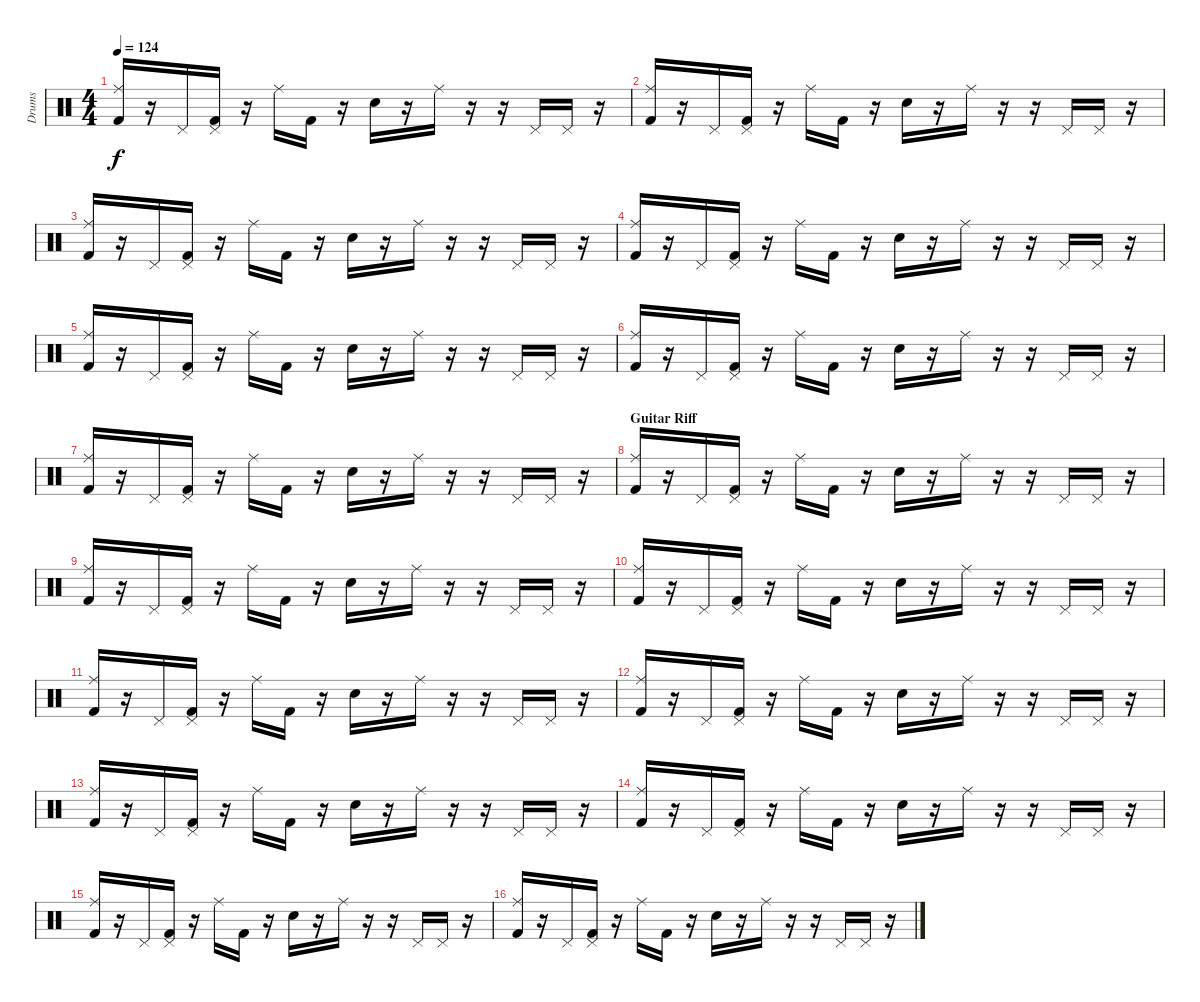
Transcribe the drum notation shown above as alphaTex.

\track ("Drums" "Drums") {instrument percussion}
\staff {score}
\articulation defaults
\ts (4 4)
\tempo 124
\clef neutral
\ks c
("Ride (middle)" "Kick (hit) 2").16{dy f} r.16 "Pedal Hi-Hat (hit)".16 ("Pedal Hi-Hat (hit)" "Kick (hit) 2").16 r.16 "Ride (middle)".16 "Kick (hit) 2".16 r.16 "Electric Snare (hit)".16 r.16 "Ride (middle)".16 r.16 r.16 "Pedal Hi-Hat (hit)".16 "Pedal Hi-Hat (hit)".16 r.16 |
("Ride (middle)" "Kick (hit) 2").16 r.16 "Pedal Hi-Hat (hit)".16 ("Pedal Hi-Hat (hit)" "Kick (hit) 2").16 r.16 "Ride (middle)".16 "Kick (hit) 2".16 r.16 "Electric Snare (hit)".16 r.16 "Ride (middle)".16 r.16 r.16 "Pedal Hi-Hat (hit)".16 "Pedal Hi-Hat (hit)".16 r.16 |
("Ride (middle)" "Kick (hit) 2").16 r.16 "Pedal Hi-Hat (hit)".16 ("Pedal Hi-Hat (hit)" "Kick (hit) 2").16 r.16 "Ride (middle)".16 "Kick (hit) 2".16 r.16 "Electric Snare (hit)".16 r.16 "Ride (middle)".16 r.16 r.16 "Pedal Hi-Hat (hit)".16 "Pedal Hi-Hat (hit)".16 r.16 |
("Ride (middle)" "Kick (hit) 2").16 r.16 "Pedal Hi-Hat (hit)".16 ("Pedal Hi-Hat (hit)" "Kick (hit) 2").16 r.16 "Ride (middle)".16 "Kick (hit) 2".16 r.16 "Electric Snare (hit)".16 r.16 "Ride (middle)".16 r.16 r.16 "Pedal Hi-Hat (hit)".16 "Pedal Hi-Hat (hit)".16 r.16 |
("Ride (middle)" "Kick (hit) 2").16 r.16 "Pedal Hi-Hat (hit)".16 ("Pedal Hi-Hat (hit)" "Kick (hit) 2").16 r.16 "Ride (middle)".16 "Kick (hit) 2".16 r.16 "Electric Snare (hit)".16 r.16 "Ride (middle)".16 r.16 r.16 "Pedal Hi-Hat (hit)".16 "Pedal Hi-Hat (hit)".16 r.16 |
("Ride (middle)" "Kick (hit) 2").16 r.16 "Pedal Hi-Hat (hit)".16 ("Pedal Hi-Hat (hit)" "Kick (hit) 2").16 r.16 "Ride (middle)".16 "Kick (hit) 2".16 r.16 "Electric Snare (hit)".16 r.16 "Ride (middle)".16 r.16 r.16 "Pedal Hi-Hat (hit)".16 "Pedal Hi-Hat (hit)".16 r.16 |
("Ride (middle)" "Kick (hit) 2").16 r.16 "Pedal Hi-Hat (hit)".16 ("Pedal Hi-Hat (hit)" "Kick (hit) 2").16 r.16 "Ride (middle)".16 "Kick (hit) 2".16 r.16 "Electric Snare (hit)".16 r.16 "Ride (middle)".16 r.16 r.16 "Pedal Hi-Hat (hit)".16 "Pedal Hi-Hat (hit)".16 r.16 |
\section ("" "Guitar Riff")
("Ride (middle)" "Kick (hit) 2").16 r.16 "Pedal Hi-Hat (hit)".16 ("Pedal Hi-Hat (hit)" "Kick (hit) 2").16 r.16 "Ride (middle)".16 "Kick (hit) 2".16 r.16 "Electric Snare (hit)".16 r.16 "Ride (middle)".16 r.16 r.16 "Pedal Hi-Hat (hit)".16 "Pedal Hi-Hat (hit)".16 r.16 |
("Ride (middle)" "Kick (hit) 2").16 r.16 "Pedal Hi-Hat (hit)".16 ("Pedal Hi-Hat (hit)" "Kick (hit) 2").16 r.16 "Ride (middle)".16 "Kick (hit) 2".16 r.16 "Electric Snare (hit)".16 r.16 "Ride (middle)".16 r.16 r.16 "Pedal Hi-Hat (hit)".16 "Pedal Hi-Hat (hit)".16 r.16 |
("Ride (middle)" "Kick (hit) 2").16 r.16 "Pedal Hi-Hat (hit)".16 ("Pedal Hi-Hat (hit)" "Kick (hit) 2").16 r.16 "Ride (middle)".16 "Kick (hit) 2".16 r.16 "Electric Snare (hit)".16 r.16 "Ride (middle)".16 r.16 r.16 "Pedal Hi-Hat (hit)".16 "Pedal Hi-Hat (hit)".16 r.16 |
("Ride (middle)" "Kick (hit) 2").16 r.16 "Pedal Hi-Hat (hit)".16 ("Pedal Hi-Hat (hit)" "Kick (hit) 2").16 r.16 "Ride (middle)".16 "Kick (hit) 2".16 r.16 "Electric Snare (hit)".16 r.16 "Ride (middle)".16 r.16 r.16 "Pedal Hi-Hat (hit)".16 "Pedal Hi-Hat (hit)".16 r.16 |
("Ride (middle)" "Kick (hit) 2").16 r.16 "Pedal Hi-Hat (hit)".16 ("Pedal Hi-Hat (hit)" "Kick (hit) 2").16 r.16 "Ride (middle)".16 "Kick (hit) 2".16 r.16 "Electric Snare (hit)".16 r.16 "Ride (middle)".16 r.16 r.16 "Pedal Hi-Hat (hit)".16 "Pedal Hi-Hat (hit)".16 r.16 |
("Ride (middle)" "Kick (hit) 2").16 r.16 "Pedal Hi-Hat (hit)".16 ("Pedal Hi-Hat (hit)" "Kick (hit) 2").16 r.16 "Ride (middle)".16 "Kick (hit) 2".16 r.16 "Electric Snare (hit)".16 r.16 "Ride (middle)".16 r.16 r.16 "Pedal Hi-Hat (hit)".16 "Pedal Hi-Hat (hit)".16 r.16 |
("Ride (middle)" "Kick (hit) 2").16 r.16 "Pedal Hi-Hat (hit)".16 ("Pedal Hi-Hat (hit)" "Kick (hit) 2").16 r.16 "Ride (middle)".16 "Kick (hit) 2".16 r.16 "Electric Snare (hit)".16 r.16 "Ride (middle)".16 r.16 r.16 "Pedal Hi-Hat (hit)".16 "Pedal Hi-Hat (hit)".16 r.16 |
("Ride (middle)" "Kick (hit) 2").16 r.16 "Pedal Hi-Hat (hit)".16 ("Pedal Hi-Hat (hit)" "Kick (hit) 2").16 r.16 "Ride (middle)".16 "Kick (hit) 2".16 r.16 "Electric Snare (hit)".16 r.16 "Ride (middle)".16 r.16 r.16 "Pedal Hi-Hat (hit)".16 "Pedal Hi-Hat (hit)".16 r.16 |
("Ride (middle)" "Kick (hit) 2").16 r.16 "Pedal Hi-Hat (hit)".16 ("Pedal Hi-Hat (hit)" "Kick (hit) 2").16 r.16 "Ride (middle)".16 "Kick (hit) 2".16 r.16 "Electric Snare (hit)".16 r.16 "Ride (middle)".16 r.16 r.16 "Pedal Hi-Hat (hit)".16 "Pedal Hi-Hat (hit)".16 r.16
